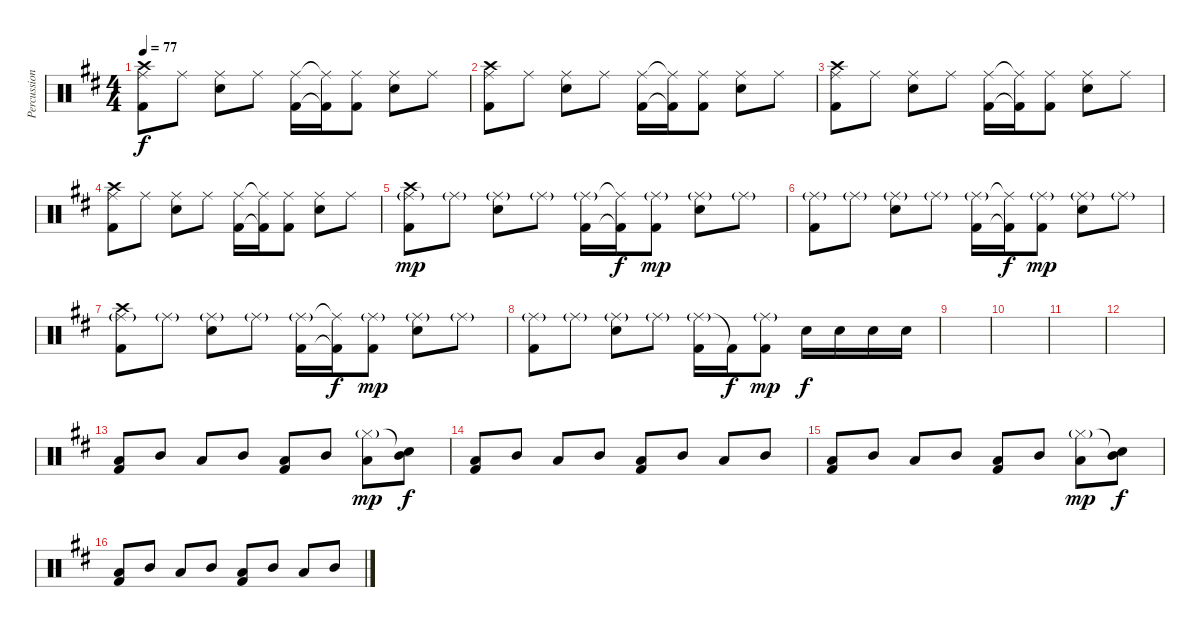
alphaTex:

\track ("Percussion" "Percussion") {instrument percussion}
\staff {score}
\articulation defaults
\ts (4 4)
\tempo 77
\clef neutral
\ks d
("Ride (middle)" "Kick (hit) 2" "Crash high (hit)").8{dy f} "Ride (middle)".8 ("Ride (middle)" "Snare (hit) 2").8 "Ride (middle)".8 ("Ride (middle)" "Kick (hit) 2").16 ("Ride (middle)"{t} "Kick (hit) 2"{t}).16 ("Ride (middle)" "Kick (hit) 2").8 ("Ride (middle)" "Snare (hit) 2").8 "Ride (middle)".8 |
("Ride (middle)" "Kick (hit) 2" "Crash high (hit)").8 "Ride (middle)".8 ("Ride (middle)" "Snare (hit) 2").8 "Ride (middle)".8 ("Ride (middle)" "Kick (hit) 2").16 ("Ride (middle)"{t} "Kick (hit) 2"{t}).16 ("Ride (middle)" "Kick (hit) 2").8 ("Ride (middle)" "Snare (hit) 2").8 "Ride (middle)".8 |
("Ride (middle)" "Kick (hit) 2" "Crash high (hit)").8 "Ride (middle)".8 ("Ride (middle)" "Snare (hit) 2").8 "Ride (middle)".8 ("Ride (middle)" "Kick (hit) 2").16 ("Ride (middle)"{t} "Kick (hit) 2"{t}).16 ("Ride (middle)" "Kick (hit) 2").8 ("Ride (middle)" "Snare (hit) 2").8 "Ride (middle)".8 |
("Ride (middle)" "Kick (hit) 2" "Crash high (hit)").8 "Ride (middle)".8 ("Ride (middle)" "Snare (hit) 2").8 "Ride (middle)".8 ("Ride (middle)" "Kick (hit) 2").16 ("Ride (middle)"{t} "Kick (hit) 2"{t}).16 ("Ride (middle)" "Kick (hit) 2").8 ("Ride (middle)" "Snare (hit) 2").8 "Ride (middle)".8 |
("Ride (middle)"{g} "Kick (hit) 2" "Crash high (hit)").8{dy mp} "Ride (middle)"{g}.8 ("Ride (middle)"{g} "Snare (hit) 2").8 "Ride (middle)"{g}.8 ("Ride (middle)"{g} "Kick (hit) 2").16 ("Ride (middle)"{t} "Kick (hit) 2"{t}).16{dy f} ("Ride (middle)"{g} "Kick (hit) 2").8{dy mp} ("Ride (middle)"{g} "Snare (hit) 2").8 "Ride (middle)"{g}.8 |
("Ride (middle)"{g} "Kick (hit) 2").8 "Ride (middle)"{g}.8 ("Ride (middle)"{g} "Snare (hit) 2").8 "Ride (middle)"{g}.8 ("Ride (middle)"{g} "Kick (hit) 2").16 ("Ride (middle)"{t} "Kick (hit) 2"{t}).16{dy f} ("Ride (middle)"{g} "Kick (hit) 2").8{dy mp} ("Ride (middle)"{g} "Snare (hit) 2").8 "Ride (middle)"{g}.8 |
("Ride (middle)"{g} "Kick (hit) 2" "Crash high (hit)").8 "Ride (middle)"{g}.8 ("Ride (middle)"{g} "Snare (hit) 2").8 "Ride (middle)"{g}.8 ("Ride (middle)"{g} "Kick (hit) 2").16 ("Ride (middle)"{t} "Kick (hit) 2"{t}).16{dy f} ("Ride (middle)"{g} "Kick (hit) 2").8{dy mp} ("Ride (middle)"{g} "Snare (hit) 2").8 "Ride (middle)"{g}.8 |
("Ride (middle)"{g} "Kick (hit) 2").8 "Ride (middle)"{g}.8 ("Ride (middle)"{g} "Snare (hit) 2").8 "Ride (middle)"{g}.8 ("Ride (middle)"{g} "Kick (hit) 2").16 "Kick (hit) 2"{t}.16{dy f} ("Ride (middle)"{g} "Kick (hit) 2").8{dy mp} "Snare (hit) 2".16{dy f} "Snare (hit) 2".16 "Snare (hit) 2".16 "Snare (hit) 2".16 |
|
|
|
|
("Low Tom (hit)" "Kick (hit) 2").8 "Mid Tom (hit)".8 "Low Tom (hit)".8 "Mid Tom (hit)".8 ("Low Tom (hit)" "Kick (hit) 2").8 "Mid Tom (hit)".8 ("Low Tom (hit)" "Hi-Hat (closed)"{g}).8{dy mp} ("Mid Tom (hit)" "Snare (hit)"{t}).8{dy f} |
("Low Tom (hit)" "Kick (hit) 2").8 "Mid Tom (hit)".8 "Low Tom (hit)".8 "Mid Tom (hit)".8 ("Low Tom (hit)" "Kick (hit) 2").8 "Mid Tom (hit)".8 "Low Tom (hit)".8 "Mid Tom (hit)".8 |
("Low Tom (hit)" "Kick (hit) 2").8 "Mid Tom (hit)".8 "Low Tom (hit)".8 "Mid Tom (hit)".8 ("Low Tom (hit)" "Kick (hit) 2").8 "Mid Tom (hit)".8 ("Low Tom (hit)" "Hi-Hat (closed)"{g}).8{dy mp} ("Mid Tom (hit)" "Snare (hit)"{t}).8{dy f} |
("Low Tom (hit)" "Kick (hit) 2").8 "Mid Tom (hit)".8 "Low Tom (hit)".8 "Mid Tom (hit)".8 ("Low Tom (hit)" "Kick (hit) 2").8 "Mid Tom (hit)".8 "Low Tom (hit)".8 "Mid Tom (hit)".8
